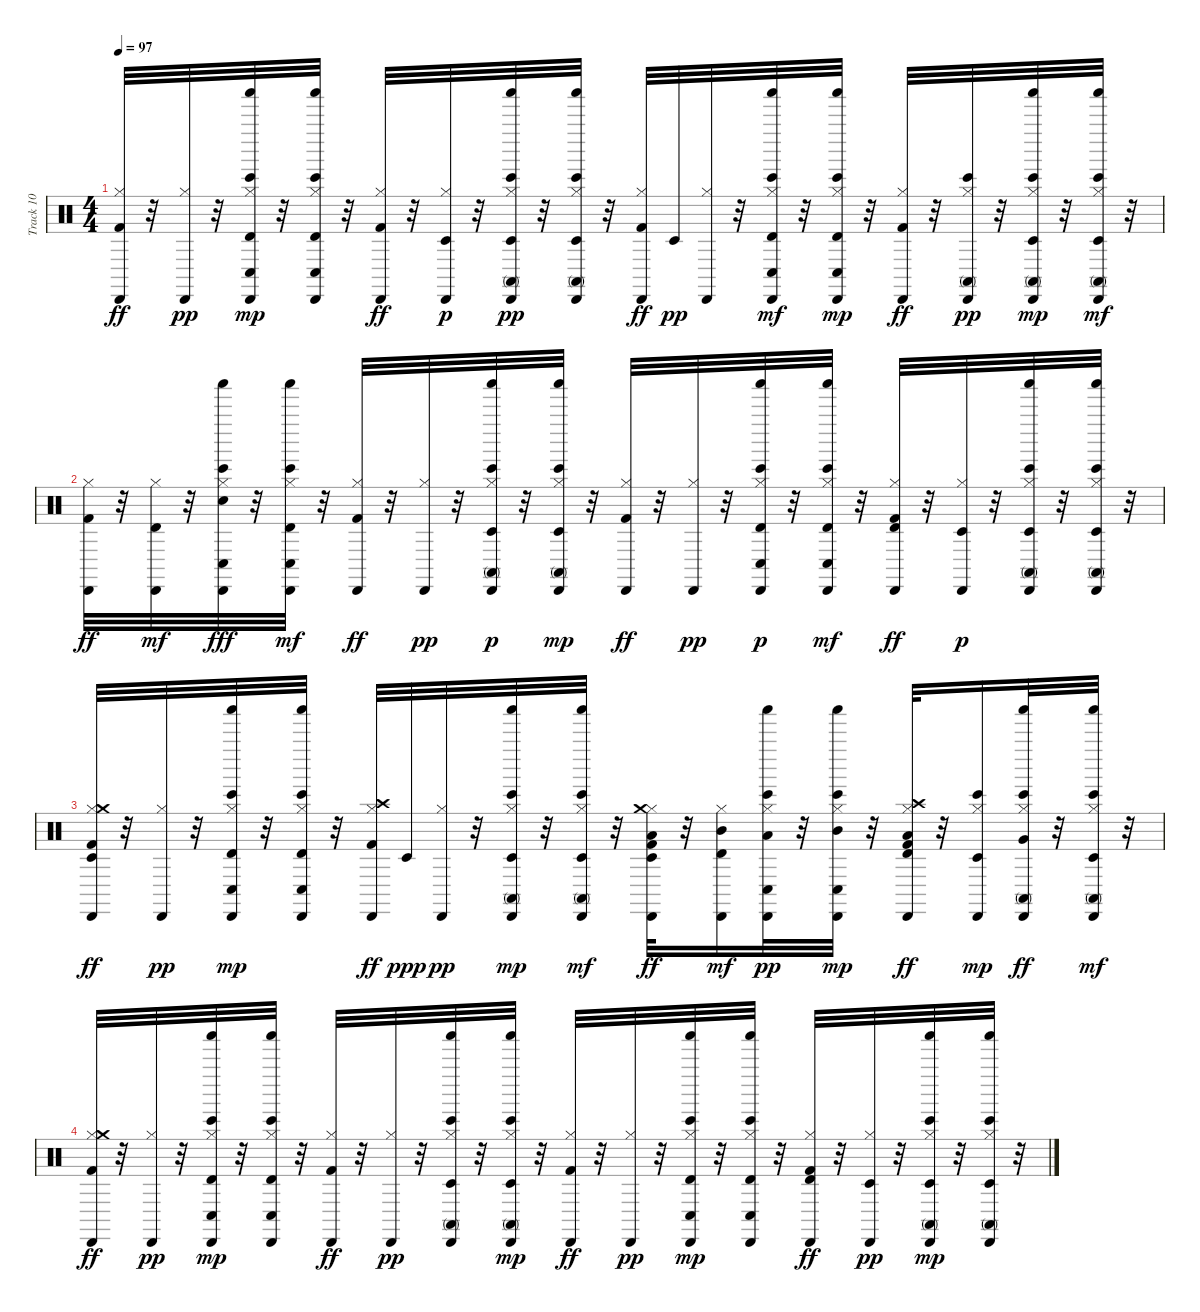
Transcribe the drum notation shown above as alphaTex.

\track ("Track 10" "Track 10") {instrument percussion}
\staff {score}
\articulation defaults
\ts (4 4)
\tempo 97
\clef neutral
\ks c
("Hi-Hat (closed)" "Cabasa (hit)" "Kick (hit) 2").32{dy ff} r.32 ("Hi-Hat (closed)" "Cabasa (hit)").32{dy pp} r.32 ("Hi-Hat (closed)" "Shaker (hit)" "Conga low (hit)" "Bongo High (hit)" "Cabasa (hit)" "Timbale high (hit)").32{dy mp} r.32 ("Hi-Hat (closed)" "Shaker (hit)" "Conga low (hit)" "Bongo High (hit)" "Cabasa (hit)" "Timbale high (hit)").32 r.32 ("Hi-Hat (closed)" "Cabasa (hit)" "Kick (hit) 2").32{dy ff} r.32 ("Hi-Hat (closed)" "Cabasa (hit)" "Timbale low (hit)").32{dy p} r.32 ("Hi-Hat (closed)" "Shaker (hit)" "Conga high (mute)" "Bongo High (hit)" "Cabasa (hit)" "Timbale low (hit)").32{dy pp} r.32 ("Hi-Hat (closed)" "Shaker (hit)" "Conga high (mute)" "Bongo High (hit)" "Cabasa (hit)" "Timbale low (hit)").32 r.32 ("Hi-Hat (closed)" "Cabasa (hit)" "Kick (hit) 2").32{dy ff} "Timbale low (hit)".32{dy pp} ("Hi-Hat (closed)" "Cabasa (hit)").32 r.32 ("Hi-Hat (closed)" "Shaker (hit)" "Conga low (hit)" "Bongo High (hit)" "Cabasa (hit)" "Timbale high (hit)").32{dy mf} r.32 ("Hi-Hat (closed)" "Shaker (hit)" "Conga low (hit)" "Bongo High (hit)" "Cabasa (hit)" "Timbale high (hit)").32{dy mp} r.32 ("Hi-Hat (closed)" "Cabasa (hit)" "Kick (hit) 2").32{dy ff} r.32 ("Hi-Hat (closed)" "Conga high (mute)" "Bongo High (hit)" "Cabasa (hit)").32{dy pp} r.32 ("Hi-Hat (closed)" "Shaker (hit)" "Conga high (mute)" "Bongo High (hit)" "Cabasa (hit)" "Timbale low (hit)").32{dy mp} r.32 ("Hi-Hat (closed)" "Shaker (hit)" "Conga high (mute)" "Bongo High (hit)" "Cabasa (hit)" "Timbale low (hit)").32{dy mf} r.32 |
("Hi-Hat (closed)" "Cabasa (hit)" "Kick (hit) 2").32{dy ff} r.32 ("Hi-Hat (closed)" "Cabasa (hit)" "Timbale high (hit)").32{dy mf} r.32 ("Hi-Hat (closed)" "Shaker (hit)" "Conga low (hit)" "Bongo High (hit)" "Cabasa (hit)" "Snare (hit) 2").32{dy fff} r.32 ("Hi-Hat (closed)" "Shaker (hit)" "Conga low (hit)" "Bongo High (hit)" "Cabasa (hit)" "Timbale high (hit)").32{dy mf} r.32 ("Hi-Hat (closed)" "Cabasa (hit)" "Kick (hit) 2").32{dy ff} r.32 ("Hi-Hat (closed)" "Cabasa (hit)").32{dy pp} r.32 ("Hi-Hat (closed)" "Shaker (hit)" "Conga high (mute)" "Bongo High (hit)" "Cabasa (hit)" "Timbale low (hit)").32{dy p} r.32 ("Hi-Hat (closed)" "Shaker (hit)" "Conga high (mute)" "Bongo High (hit)" "Cabasa (hit)" "Timbale low (hit)").32{dy mp} r.32 ("Hi-Hat (closed)" "Cabasa (hit)" "Kick (hit) 2").32{dy ff} r.32 ("Hi-Hat (closed)" "Cabasa (hit)").32{dy pp} r.32 ("Hi-Hat (closed)" "Shaker (hit)" "Conga low (hit)" "Bongo High (hit)" "Cabasa (hit)" "Timbale high (hit)").32{dy p} r.32 ("Hi-Hat (closed)" "Shaker (hit)" "Conga low (hit)" "Bongo High (hit)" "Cabasa (hit)" "Timbale high (hit)").32{dy mf} r.32 ("Hi-Hat (closed)" "Cabasa (hit)" "Timbale high (hit)" "Kick (hit) 2").32{dy ff} r.32 ("Hi-Hat (closed)" "Cabasa (hit)" "Timbale low (hit)").32{dy p} r.32 ("Hi-Hat (closed)" "Shaker (hit)" "Conga high (mute)" "Bongo High (hit)" "Cabasa (hit)" "Timbale low (hit)").32 r.32 ("Hi-Hat (closed)" "Shaker (hit)" "Conga high (mute)" "Bongo High (hit)" "Cabasa (hit)" "Timbale low (hit)").32 r.32 |
("Hi-Hat (closed)" "Cabasa (hit)" "Timbale low (hit)" "Crash medium (hit)" "Kick (hit) 2").32{dy ff} r.32 ("Hi-Hat (closed)" "Cabasa (hit)").32{dy pp} r.32 ("Hi-Hat (closed)" "Shaker (hit)" "Conga low (hit)" "Bongo High (hit)" "Cabasa (hit)" "Timbale high (hit)").32{dy mp} r.32 ("Hi-Hat (closed)" "Shaker (hit)" "Conga low (hit)" "Bongo High (hit)" "Cabasa (hit)" "Timbale high (hit)").32 r.32 ("Hi-Hat (closed)" "Cabasa (hit)" "Crash high (hit)" "Kick (hit) 2").32{dy ff} "Timbale low (hit)".32{dy ppp} ("Hi-Hat (closed)" "Cabasa (hit)").32{dy pp} r.32 ("Hi-Hat (closed)" "Shaker (hit)" "Conga high (mute)" "Bongo High (hit)" "Cabasa (hit)" "Timbale low (hit)").32{dy mp} r.32 ("Hi-Hat (closed)" "Shaker (hit)" "Conga high (mute)" "Bongo High (hit)" "Cabasa (hit)" "Timbale low (hit)").32{dy mf} r.32 ("Hi-Hat (closed)" "Cabasa (hit)" "Low Tom (hit)" "Timbale low (hit)" "Crash medium (hit)" "Kick (hit) 2").32{dy ff} r.32 ("Hi-Hat (closed)" "Cabasa (hit)" "Mid Tom (hit)" "Timbale high (hit)").16{dy mf} ("Hi-Hat (closed)" "Shaker (hit)" "Conga low (hit)" "Bongo High (hit)" "Cabasa (hit)" "Low Tom (hit)").32{dy pp} r.32 ("Hi-Hat (closed)" "Shaker (hit)" "Conga low (hit)" "Bongo High (hit)" "Cabasa (hit)" "Mid Tom (hit)").32{dy mp} r.32 ("Hi-Hat (closed)" "Cabasa (hit)" "Low Tom (hit)" "Timbale high (hit)" "Crash high (hit)" "Kick (hit) 2").32{dy ff} r.32 ("Hi-Hat (closed)" "Bongo High (hit)" "Cabasa (hit)" "Timbale low (hit)").16{dy mp} ("Hi-Hat (closed)" "Shaker (hit)" "Conga high (mute)" "Bongo High (hit)" "Cabasa (hit)" "Very Low Tom (hit)").32{dy ff} r.32 ("Hi-Hat (closed)" "Shaker (hit)" "Conga high (mute)" "Bongo High (hit)" "Cabasa (hit)" "Timbale low (hit)").32{dy mf} r.32 |
("Hi-Hat (closed)" "Cabasa (hit)" "Crash medium (hit)" "Kick (hit) 2").32{dy ff} r.32 ("Hi-Hat (closed)" "Cabasa (hit)").32{dy pp} r.32 ("Hi-Hat (closed)" "Shaker (hit)" "Conga low (hit)" "Bongo High (hit)" "Cabasa (hit)" "Timbale high (hit)").32{dy mp} r.32 ("Hi-Hat (closed)" "Shaker (hit)" "Conga low (hit)" "Bongo High (hit)" "Cabasa (hit)" "Timbale high (hit)").32 r.32 ("Hi-Hat (closed)" "Cabasa (hit)" "Kick (hit) 2").32{dy ff} r.32 ("Hi-Hat (closed)" "Cabasa (hit)").32{dy pp} r.32 ("Hi-Hat (closed)" "Shaker (hit)" "Conga high (mute)" "Bongo High (hit)" "Cabasa (hit)" "Timbale low (hit)").32 r.32 ("Hi-Hat (closed)" "Shaker (hit)" "Conga high (mute)" "Bongo High (hit)" "Cabasa (hit)" "Timbale low (hit)").32{dy mp} r.32 ("Hi-Hat (closed)" "Cabasa (hit)" "Kick (hit) 2").32{dy ff} r.32 ("Hi-Hat (closed)" "Cabasa (hit)").32{dy pp} r.32 ("Hi-Hat (closed)" "Shaker (hit)" "Conga low (hit)" "Bongo High (hit)" "Cabasa (hit)" "Timbale high (hit)").32{dy mp} r.32 ("Hi-Hat (closed)" "Shaker (hit)" "Conga low (hit)" "Bongo High (hit)" "Cabasa (hit)" "Timbale high (hit)").32 r.32 ("Hi-Hat (closed)" "Cabasa (hit)" "Timbale high (hit)" "Kick (hit) 2").32{dy ff} r.32 ("Hi-Hat (closed)" "Cabasa (hit)" "Timbale low (hit)").32{dy pp} r.32 ("Hi-Hat (closed)" "Shaker (hit)" "Conga high (mute)" "Bongo High (hit)" "Cabasa (hit)" "Timbale low (hit)").32{dy mp} r.32 ("Hi-Hat (closed)" "Shaker (hit)" "Conga high (mute)" "Bongo High (hit)" "Cabasa (hit)" "Timbale low (hit)").32 r.32
